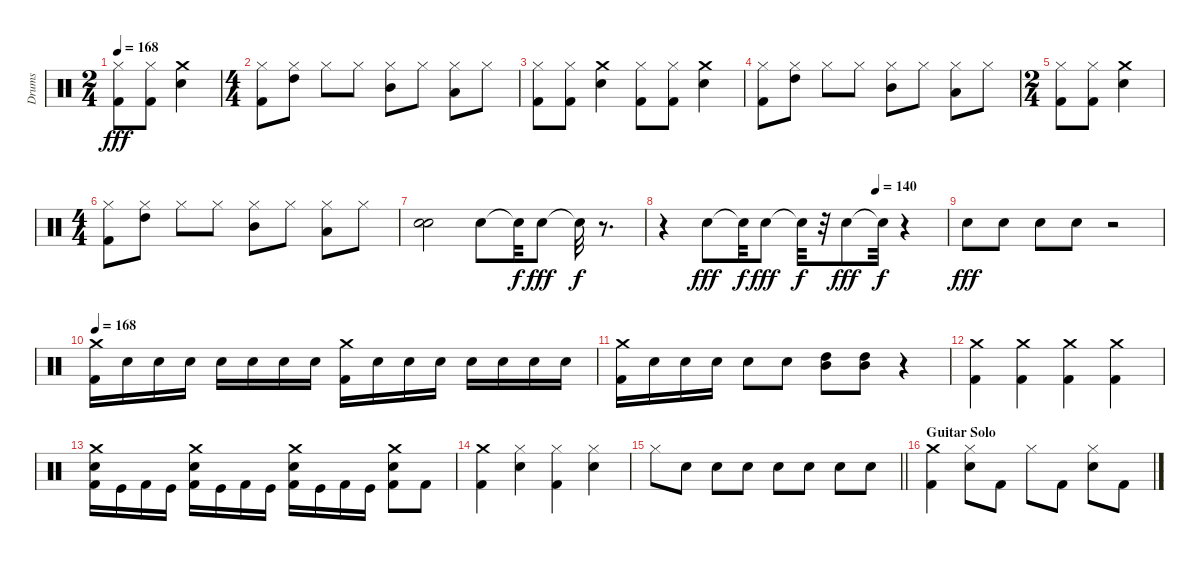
\track ("Drums" "Drums") {instrument percussion}
\staff {score}
\articulation defaults
\ts (2 4)
\tempo 168
\clef neutral
\ks c
("Kick (hit) 2" "Hi-Hat (closed)").8{dy fff} ("Kick (hit) 2" "Hi-Hat (closed)").8 ("Snare (hit) 2" "Crash medium (hit)").4 |
\ts (4 4)
("Hi-Hat (closed)" "Kick (hit) 2").8 ("High Tom (hit)" "Hi-Hat (closed)").8{balance 16} "Hi-Hat (closed)".8{balance 8} "Hi-Hat (closed)".8 ("Mid Tom (hit)" "Hi-Hat (closed)").8 "Hi-Hat (closed)".8 ("Hi-Hat (closed)" "Low Tom (hit)").8{balance 0} "Hi-Hat (closed)".8{balance 8} |
("Hi-Hat (closed)" "Kick (hit) 2").8 ("Hi-Hat (closed)" "Kick (hit) 2").8 ("Snare (hit) 2" "Crash medium (hit)").4 ("Kick (hit) 2" "Hi-Hat (closed)").8 ("Kick (hit) 2" "Hi-Hat (closed)").8 ("Crash medium (hit)" "Snare (hit) 2").4 |
("Hi-Hat (closed)" "Kick (hit) 2").8 ("High Tom (hit)" "Hi-Hat (closed)").8{balance 16} "Hi-Hat (closed)".8{balance 8} "Hi-Hat (closed)".8 ("Mid Tom (hit)" "Hi-Hat (closed)").8 "Hi-Hat (closed)".8 ("Hi-Hat (closed)" "Low Tom (hit)").8{balance 0} "Hi-Hat (closed)".8{balance 8} |
\ts (2 4)
("Hi-Hat (closed)" "Kick (hit) 2").8 ("Hi-Hat (closed)" "Kick (hit) 2").8 ("Crash medium (hit)" "Snare (hit) 2").4 |
\ts (4 4)
("Hi-Hat (closed)" "Kick (hit) 2").8 ("High Tom (hit)" "Hi-Hat (closed)").8{balance 16} "Hi-Hat (closed)".8{balance 8} "Hi-Hat (closed)".8 ("Mid Tom (hit)" "Hi-Hat (closed)").8 "Hi-Hat (closed)".8 ("Hi-Hat (closed)" "Low Tom (hit)").8{balance 0} "Hi-Hat (closed)".8{balance 8} |
("Snare (hit) 2" "Snare (hit) 2").2 "Snare (hit) 2".8 "Snare (hit)"{t}.32{dy f} "Snare (hit) 2".8{dy fff} "Snare (hit)"{t}.32{dy f} r.8{d} |
\tempo (140 0.75)
r.4 "Snare (hit) 2".8{dy fff} "Snare (hit)"{t}.32{dy f} "Snare (hit) 2".8{dy fff} "Snare (hit)"{t}.32{dy f} r.32 "Snare (hit) 2".8{dy fff} "Snare (hit)"{t}.32{dy f} r.4 |
"Snare (hit) 2".8{dy fff} "Snare (hit) 2".8 "Snare (hit) 2".8 "Snare (hit) 2".8 r.2 |
\tempo 168
("Kick (hit) 2" "Crash medium (hit)").16 "Snare (hit) 2".16 "Snare (hit) 2".16 "Snare (hit) 2".16 "Snare (hit) 2".16 "Snare (hit) 2".16 "Snare (hit) 2".16 "Snare (hit) 2".16 ("Kick (hit) 2" "Crash medium (hit)").16 "Snare (hit) 2".16 "Snare (hit) 2".16 "Snare (hit) 2".16 "Snare (hit) 2".16 "Snare (hit) 2".16 "Snare (hit) 2".16 "Snare (hit) 2".16 |
("Kick (hit) 2" "Crash medium (hit)").16 "Snare (hit) 2".16 "Snare (hit) 2".16 "Snare (hit) 2".16 "Snare (hit) 2".8 "Snare (hit) 2".8 ("High Tom (hit)" "Mid Tom (hit)").8 ("High Tom (hit)" "Mid Tom (hit)").8 r.4 |
("Crash medium (hit)" "Kick (hit) 2").4 ("Crash medium (hit)" "Kick (hit) 2").4 ("Crash medium (hit)" "Kick (hit) 2").4 ("Crash medium (hit)" "Kick (hit) 2").4 |
("Snare (hit) 2" "Crash medium (hit)" "Kick (hit) 2").16 "Kick (hit)".16 "Kick (hit) 2".16 "Kick (hit)".16 ("Snare (hit) 2" "Crash medium (hit)" "Kick (hit) 2").16 "Kick (hit)".16 "Kick (hit) 2".16 "Kick (hit)".16 ("Snare (hit) 2" "Crash medium (hit)" "Kick (hit) 2").16 "Kick (hit)".16 "Kick (hit) 2".16 "Kick (hit)".16 ("Snare (hit) 2" "Crash medium (hit)" "Kick (hit) 2").8 "Kick (hit) 2".8 |
("Crash medium (hit)" "Kick (hit) 2").4 ("Snare (hit) 2" "Hi-Hat (closed)").4 ("Kick (hit) 2" "Hi-Hat (closed)").4 ("Snare (hit) 2" "Hi-Hat (closed)").4 |
\barLineRight lightlight "Hi-Hat (closed)".8 "Snare (hit) 2".8 "Snare (hit) 2".8 "Snare (hit) 2".8 "Snare (hit) 2".8 "Snare (hit) 2".8 "Snare (hit) 2".8 "Snare (hit) 2".8
|
\section ("" "Guitar Solo")
("Kick (hit) 2" "Crash medium (hit)").4 ("Hi-Hat (closed)" "Snare (hit) 2").8 "Kick (hit) 2".8 "Hi-Hat (closed)".8 "Kick (hit) 2".8 ("Snare (hit) 2" "Hi-Hat (closed)").8 "Kick (hit) 2".8
